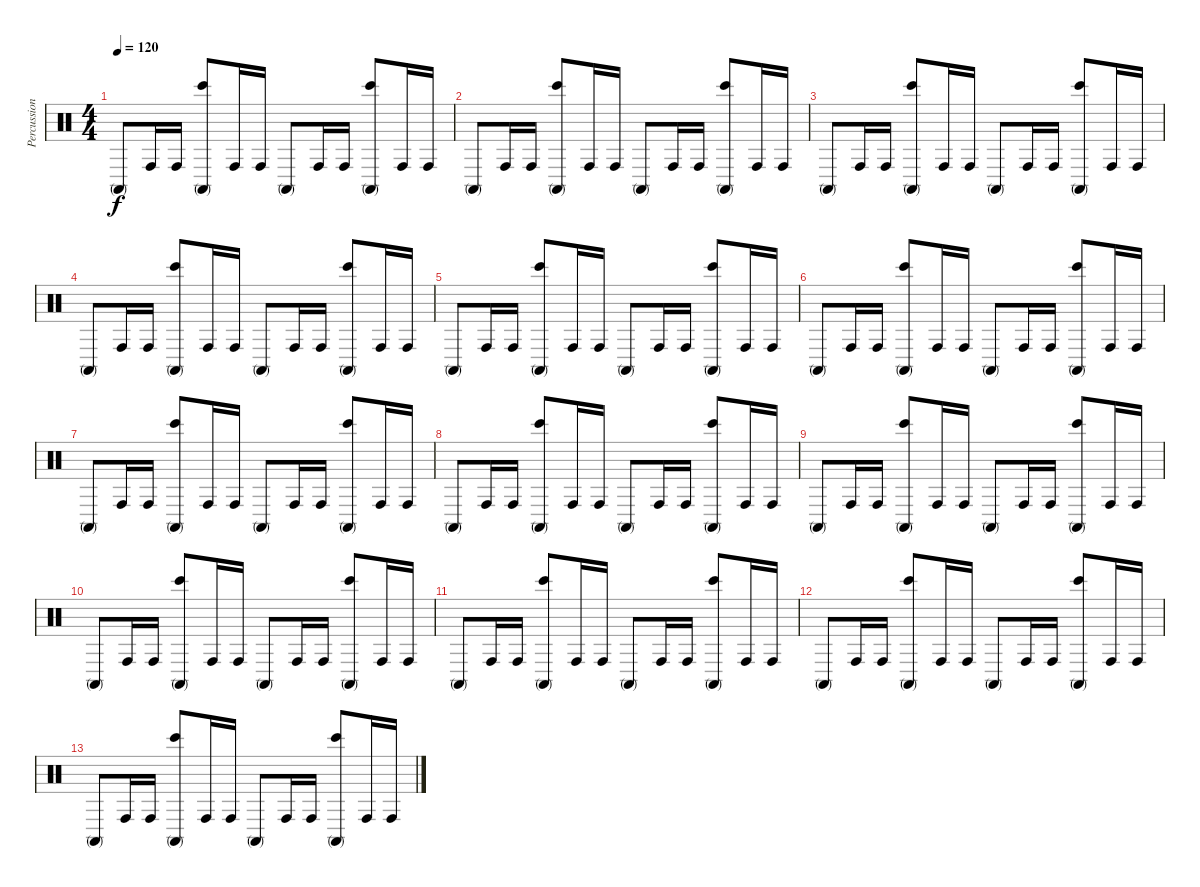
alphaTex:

\track ("Percussions" "Percussion") {instrument percussion}
\staff {score}
\articulation defaults
\ts (4 4)
\tempo 120
\clef neutral
\ks c "Conga high (mute)".8{dy f} "Conga high (hit)".16 "Conga high (hit)".16
("Conga high (mute)" "Bongo High (hit)").8 "Conga high (hit)".16 "Conga high (hit)".16 "Conga high (mute)".8 "Conga high (hit)".16 "Conga high (hit)".16 ("Conga high (mute)" "Bongo High (hit)").8 "Conga high (hit)".16 "Conga high (hit)".16 |
"Conga high (mute)".8 "Conga high (hit)".16 "Conga high (hit)".16 ("Conga high (mute)" "Bongo High (hit)").8 "Conga high (hit)".16 "Conga high (hit)".16 "Conga high (mute)".8 "Conga high (hit)".16 "Conga high (hit)".16 ("Conga high (mute)" "Bongo High (hit)").8 "Conga high (hit)".16 "Conga high (hit)".16 |
"Conga high (mute)".8 "Conga high (hit)".16 "Conga high (hit)".16 ("Conga high (mute)" "Bongo High (hit)").8 "Conga high (hit)".16 "Conga high (hit)".16 "Conga high (mute)".8 "Conga high (hit)".16 "Conga high (hit)".16 ("Conga high (mute)" "Bongo High (hit)").8 "Conga high (hit)".16 "Conga high (hit)".16 |
"Conga high (mute)".8 "Conga high (hit)".16 "Conga high (hit)".16 ("Conga high (mute)" "Bongo High (hit)").8 "Conga high (hit)".16 "Conga high (hit)".16 "Conga high (mute)".8 "Conga high (hit)".16 "Conga high (hit)".16 ("Conga high (mute)" "Bongo High (hit)").8 "Conga high (hit)".16 "Conga high (hit)".16 |
"Conga high (mute)".8 "Conga high (hit)".16 "Conga high (hit)".16 ("Conga high (mute)" "Bongo High (hit)").8 "Conga high (hit)".16 "Conga high (hit)".16 "Conga high (mute)".8 "Conga high (hit)".16 "Conga high (hit)".16 ("Conga high (mute)" "Bongo High (hit)").8 "Conga high (hit)".16 "Conga high (hit)".16 |
"Conga high (mute)".8 "Conga high (hit)".16 "Conga high (hit)".16 ("Conga high (mute)" "Bongo High (hit)").8 "Conga high (hit)".16 "Conga high (hit)".16 "Conga high (mute)".8 "Conga high (hit)".16 "Conga high (hit)".16 ("Conga high (mute)" "Bongo High (hit)").8 "Conga high (hit)".16 "Conga high (hit)".16 |
"Conga high (mute)".8 "Conga high (hit)".16 "Conga high (hit)".16 ("Conga high (mute)" "Bongo High (hit)").8 "Conga high (hit)".16 "Conga high (hit)".16 "Conga high (mute)".8 "Conga high (hit)".16 "Conga high (hit)".16 ("Conga high (mute)" "Bongo High (hit)").8 "Conga high (hit)".16 "Conga high (hit)".16 |
"Conga high (mute)".8 "Conga high (hit)".16 "Conga high (hit)".16 ("Conga high (mute)" "Bongo High (hit)").8 "Conga high (hit)".16 "Conga high (hit)".16 "Conga high (mute)".8 "Conga high (hit)".16 "Conga high (hit)".16 ("Conga high (mute)" "Bongo High (hit)").8 "Conga high (hit)".16 "Conga high (hit)".16 |
"Conga high (mute)".8 "Conga high (hit)".16 "Conga high (hit)".16 ("Conga high (mute)" "Bongo High (hit)").8 "Conga high (hit)".16 "Conga high (hit)".16 "Conga high (mute)".8 "Conga high (hit)".16 "Conga high (hit)".16 ("Conga high (mute)" "Bongo High (hit)").8 "Conga high (hit)".16 "Conga high (hit)".16 |
"Conga high (mute)".8 "Conga high (hit)".16 "Conga high (hit)".16 ("Conga high (mute)" "Bongo High (hit)").8 "Conga high (hit)".16 "Conga high (hit)".16 "Conga high (mute)".8 "Conga high (hit)".16 "Conga high (hit)".16 ("Conga high (mute)" "Bongo High (hit)").8 "Conga high (hit)".16 "Conga high (hit)".16 |
"Conga high (mute)".8 "Conga high (hit)".16 "Conga high (hit)".16 ("Conga high (mute)" "Bongo High (hit)").8 "Conga high (hit)".16 "Conga high (hit)".16 "Conga high (mute)".8 "Conga high (hit)".16 "Conga high (hit)".16 ("Conga high (mute)" "Bongo High (hit)").8 "Conga high (hit)".16 "Conga high (hit)".16 |
"Conga high (mute)".8 "Conga high (hit)".16 "Conga high (hit)".16 ("Conga high (mute)" "Bongo High (hit)").8 "Conga high (hit)".16 "Conga high (hit)".16 "Conga high (mute)".8 "Conga high (hit)".16 "Conga high (hit)".16 ("Conga high (mute)" "Bongo High (hit)").8 "Conga high (hit)".16 "Conga high (hit)".16 |
"Conga high (mute)".8 "Conga high (hit)".16 "Conga high (hit)".16 ("Conga high (mute)" "Bongo High (hit)").8 "Conga high (hit)".16 "Conga high (hit)".16 "Conga high (mute)".8 "Conga high (hit)".16 "Conga high (hit)".16 ("Conga high (mute)" "Bongo High (hit)").8 "Conga high (hit)".16 "Conga high (hit)".16
